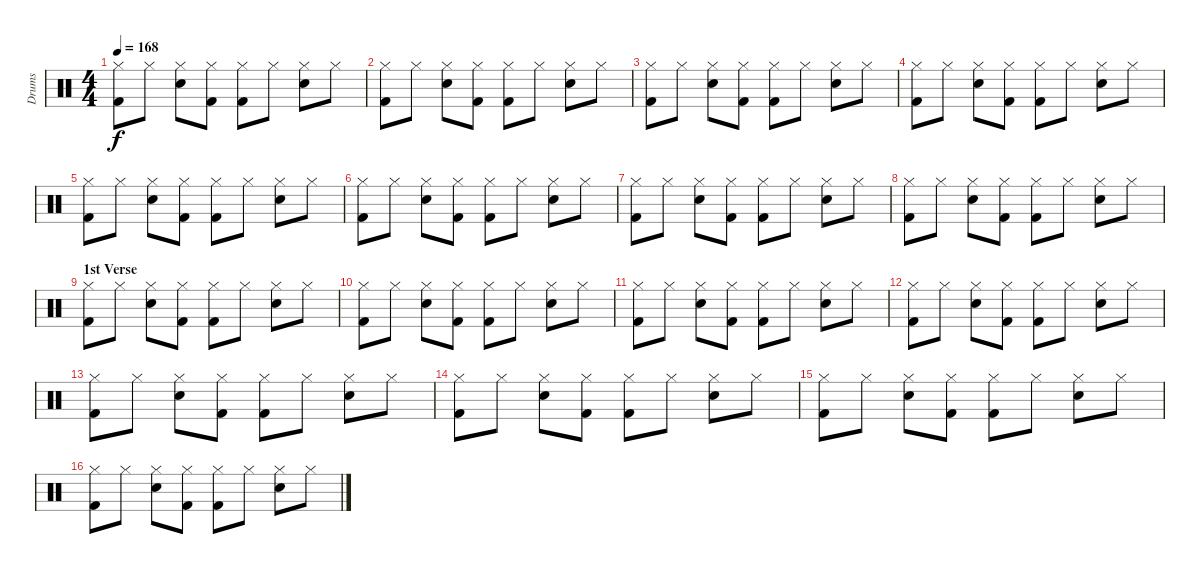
\track ("Drums" "Drums") {instrument percussion}
\staff {score}
\articulation defaults
\ts (4 4)
\tempo 168
\clef neutral
\ks c
("Kick (hit) 2" "Hi-Hat (closed)").8{dy f} "Hi-Hat (closed)".8 ("Snare (hit) 2" "Hi-Hat (closed)").8 ("Kick (hit) 2" "Hi-Hat (closed)").8 ("Kick (hit) 2" "Hi-Hat (closed)").8 "Hi-Hat (closed)".8 ("Snare (hit) 2" "Hi-Hat (closed)").8 "Hi-Hat (closed)".8 |
("Kick (hit) 2" "Hi-Hat (closed)").8 "Hi-Hat (closed)".8 ("Snare (hit) 2" "Hi-Hat (closed)").8 ("Kick (hit) 2" "Hi-Hat (closed)").8 ("Kick (hit) 2" "Hi-Hat (closed)").8 "Hi-Hat (closed)".8 ("Snare (hit) 2" "Hi-Hat (closed)").8 "Hi-Hat (closed)".8 |
("Kick (hit) 2" "Hi-Hat (closed)").8 "Hi-Hat (closed)".8 ("Snare (hit) 2" "Hi-Hat (closed)").8 ("Kick (hit) 2" "Hi-Hat (closed)").8 ("Kick (hit) 2" "Hi-Hat (closed)").8 "Hi-Hat (closed)".8 ("Snare (hit) 2" "Hi-Hat (closed)").8 "Hi-Hat (closed)".8 |
("Kick (hit) 2" "Hi-Hat (closed)").8 "Hi-Hat (closed)".8 ("Snare (hit) 2" "Hi-Hat (closed)").8 ("Kick (hit) 2" "Hi-Hat (closed)").8 ("Kick (hit) 2" "Hi-Hat (closed)").8 "Hi-Hat (closed)".8 ("Snare (hit) 2" "Hi-Hat (closed)").8 "Hi-Hat (closed)".8 |
("Kick (hit) 2" "Hi-Hat (closed)").8 "Hi-Hat (closed)".8 ("Snare (hit) 2" "Hi-Hat (closed)").8 ("Kick (hit) 2" "Hi-Hat (closed)").8 ("Kick (hit) 2" "Hi-Hat (closed)").8 "Hi-Hat (closed)".8 ("Snare (hit) 2" "Hi-Hat (closed)").8 "Hi-Hat (closed)".8 |
("Kick (hit) 2" "Hi-Hat (closed)").8 "Hi-Hat (closed)".8 ("Snare (hit) 2" "Hi-Hat (closed)").8 ("Kick (hit) 2" "Hi-Hat (closed)").8 ("Kick (hit) 2" "Hi-Hat (closed)").8 "Hi-Hat (closed)".8 ("Snare (hit) 2" "Hi-Hat (closed)").8 "Hi-Hat (closed)".8 |
("Kick (hit) 2" "Hi-Hat (closed)").8 "Hi-Hat (closed)".8 ("Snare (hit) 2" "Hi-Hat (closed)").8 ("Kick (hit) 2" "Hi-Hat (closed)").8 ("Kick (hit) 2" "Hi-Hat (closed)").8 "Hi-Hat (closed)".8 ("Snare (hit) 2" "Hi-Hat (closed)").8 "Hi-Hat (closed)".8 |
("Kick (hit) 2" "Hi-Hat (closed)").8 "Hi-Hat (closed)".8 ("Snare (hit) 2" "Hi-Hat (closed)").8 ("Kick (hit) 2" "Hi-Hat (closed)").8 ("Kick (hit) 2" "Hi-Hat (closed)").8 "Hi-Hat (closed)".8 ("Snare (hit) 2" "Hi-Hat (closed)").8 "Hi-Hat (closed)".8 |
\section ("" "1st Verse")
("Kick (hit) 2" "Hi-Hat (closed)").8 "Hi-Hat (closed)".8 ("Snare (hit) 2" "Hi-Hat (closed)").8 ("Kick (hit) 2" "Hi-Hat (closed)").8 ("Kick (hit) 2" "Hi-Hat (closed)").8 "Hi-Hat (closed)".8 ("Snare (hit) 2" "Hi-Hat (closed)").8 "Hi-Hat (closed)".8 |
("Kick (hit) 2" "Hi-Hat (closed)").8 "Hi-Hat (closed)".8 ("Snare (hit) 2" "Hi-Hat (closed)").8 ("Kick (hit) 2" "Hi-Hat (closed)").8 ("Kick (hit) 2" "Hi-Hat (closed)").8 "Hi-Hat (closed)".8 ("Snare (hit) 2" "Hi-Hat (closed)").8 "Hi-Hat (closed)".8 |
("Kick (hit) 2" "Hi-Hat (closed)").8 "Hi-Hat (closed)".8 ("Snare (hit) 2" "Hi-Hat (closed)").8 ("Kick (hit) 2" "Hi-Hat (closed)").8 ("Kick (hit) 2" "Hi-Hat (closed)").8 "Hi-Hat (closed)".8 ("Snare (hit) 2" "Hi-Hat (closed)").8 "Hi-Hat (closed)".8 |
("Kick (hit) 2" "Hi-Hat (closed)").8 "Hi-Hat (closed)".8 ("Snare (hit) 2" "Hi-Hat (closed)").8 ("Kick (hit) 2" "Hi-Hat (closed)").8 ("Kick (hit) 2" "Hi-Hat (closed)").8 "Hi-Hat (closed)".8 ("Snare (hit) 2" "Hi-Hat (closed)").8 "Hi-Hat (closed)".8 |
("Kick (hit) 2" "Hi-Hat (closed)").8 "Hi-Hat (closed)".8 ("Snare (hit) 2" "Hi-Hat (closed)").8 ("Kick (hit) 2" "Hi-Hat (closed)").8 ("Kick (hit) 2" "Hi-Hat (closed)").8 "Hi-Hat (closed)".8 ("Snare (hit) 2" "Hi-Hat (closed)").8 "Hi-Hat (closed)".8 |
("Kick (hit) 2" "Hi-Hat (closed)").8 "Hi-Hat (closed)".8 ("Snare (hit) 2" "Hi-Hat (closed)").8 ("Kick (hit) 2" "Hi-Hat (closed)").8 ("Kick (hit) 2" "Hi-Hat (closed)").8 "Hi-Hat (closed)".8 ("Snare (hit) 2" "Hi-Hat (closed)").8 "Hi-Hat (closed)".8 |
("Kick (hit) 2" "Hi-Hat (closed)").8 "Hi-Hat (closed)".8 ("Snare (hit) 2" "Hi-Hat (closed)").8 ("Kick (hit) 2" "Hi-Hat (closed)").8 ("Kick (hit) 2" "Hi-Hat (closed)").8 "Hi-Hat (closed)".8 ("Snare (hit) 2" "Hi-Hat (closed)").8 "Hi-Hat (closed)".8 |
("Kick (hit) 2" "Hi-Hat (closed)").8 "Hi-Hat (closed)".8 ("Snare (hit) 2" "Hi-Hat (closed)").8 ("Kick (hit) 2" "Hi-Hat (closed)").8 ("Kick (hit) 2" "Hi-Hat (closed)").8 "Hi-Hat (closed)".8 ("Snare (hit) 2" "Hi-Hat (closed)").8 "Hi-Hat (closed)".8
